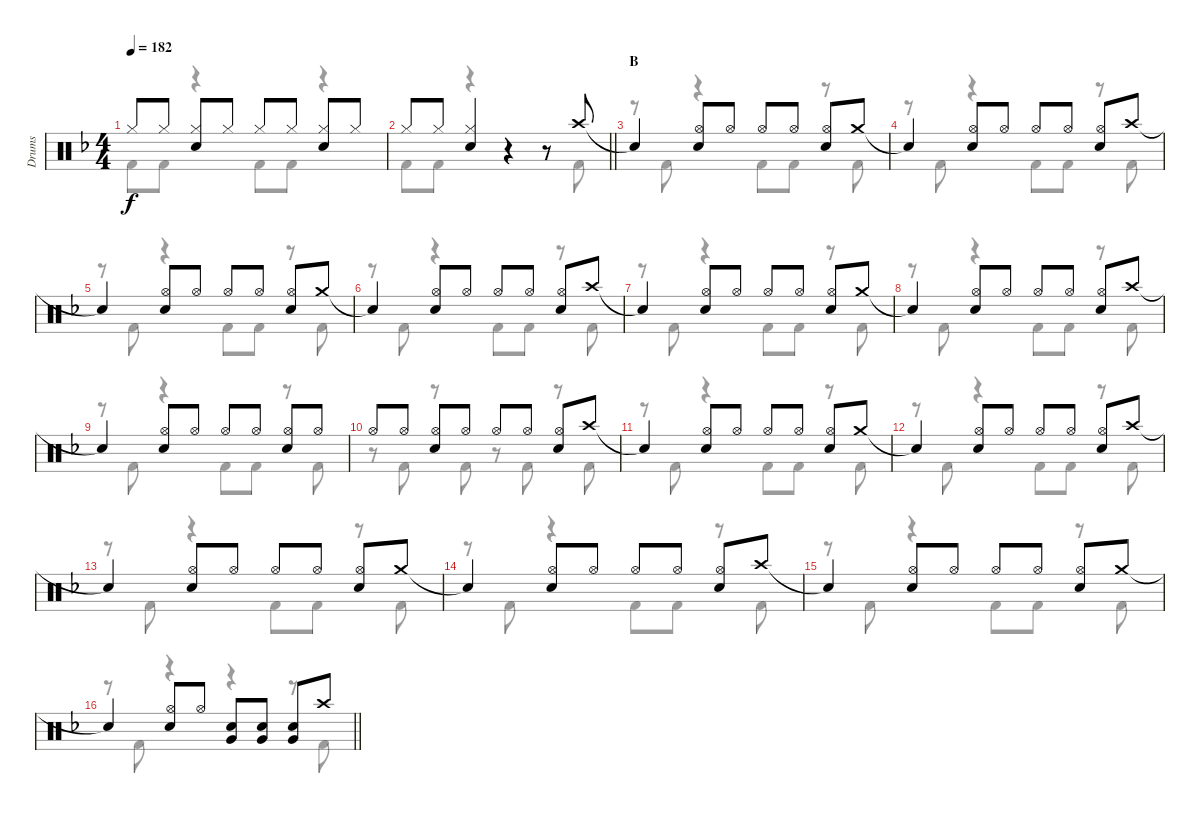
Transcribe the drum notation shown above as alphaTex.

\track ("Drums" "Drums") {instrument percussion}
\staff {score}
\articulation defaults
\voice
\ts (4 4)
\tempo 182
\clef neutral
\ks f "Hi-Hat (closed)".8{dy f} "Hi-Hat (closed)".8
("Hi-Hat (closed)" "Snare (hit) 2").8 "Hi-Hat (closed)".8 "Hi-Hat (closed)".8 "Hi-Hat (closed)".8 ("Hi-Hat (closed)" "Snare (hit) 2").8 "Hi-Hat (closed)".8 |
\barLineRight lightlight "Hi-Hat (closed)".8 "Hi-Hat (closed)".8
("Hi-Hat (closed)" "Snare (hit) 2").4 r.4 r.8 "Crash high (hit)".8 |
\section ("" "B")
"Snare (hit)"{t}.4 ("Hi-Hat (open)" "Snare (hit) 2").8 "Hi-Hat (open)".8 "Hi-Hat (open)".8 "Hi-Hat (open)".8 ("Hi-Hat (open)" "Snare (hit) 2").8 "Crash medium (hit)".8 |
"Snare (hit)"{t}.4 ("Hi-Hat (open)" "Snare (hit) 2").8 "Hi-Hat (open)".8 "Hi-Hat (open)".8 "Hi-Hat (open)".8 ("Hi-Hat (open)" "Snare (hit) 2").8 "Crash high (hit)".8 |
"Snare (hit)"{t}.4 ("Hi-Hat (open)" "Snare (hit) 2").8 "Hi-Hat (open)".8 "Hi-Hat (open)".8 "Hi-Hat (open)".8 ("Hi-Hat (open)" "Snare (hit) 2").8 "Crash medium (hit)".8 |
"Snare (hit)"{t}.4 ("Hi-Hat (open)" "Snare (hit) 2").8 "Hi-Hat (open)".8 "Hi-Hat (open)".8 "Hi-Hat (open)".8 ("Hi-Hat (open)" "Snare (hit) 2").8 "Crash high (hit)".8 |
"Snare (hit)"{t}.4 ("Hi-Hat (open)" "Snare (hit) 2").8 "Hi-Hat (open)".8 "Hi-Hat (open)".8 "Hi-Hat (open)".8 ("Hi-Hat (open)" "Snare (hit) 2").8 "Crash medium (hit)".8 |
"Snare (hit)"{t}.4 ("Hi-Hat (open)" "Snare (hit) 2").8 "Hi-Hat (open)".8 "Hi-Hat (open)".8 "Hi-Hat (open)".8 ("Hi-Hat (open)" "Snare (hit) 2").8 "Crash high (hit)".8 |
"Snare (hit)"{t}.4 ("Hi-Hat (open)" "Snare (hit) 2").8 "Hi-Hat (open)".8 "Hi-Hat (open)".8 "Hi-Hat (open)".8 ("Hi-Hat (open)" "Snare (hit) 2").8 "Hi-Hat (open)".8 |
"Hi-Hat (open)".8 "Hi-Hat (open)".8 ("Hi-Hat (open)" "Snare (hit) 2").8 "Hi-Hat (open)".8 "Hi-Hat (open)".8 "Hi-Hat (open)".8 ("Hi-Hat (open)" "Snare (hit) 2").8 "Crash high (hit)".8 |
"Snare (hit)"{t}.4 ("Hi-Hat (open)" "Snare (hit) 2").8 "Hi-Hat (open)".8 "Hi-Hat (open)".8 "Hi-Hat (open)".8 ("Hi-Hat (open)" "Snare (hit) 2").8 "Crash medium (hit)".8 |
"Snare (hit)"{t}.4 ("Hi-Hat (open)" "Snare (hit) 2").8 "Hi-Hat (open)".8 "Hi-Hat (open)".8 "Hi-Hat (open)".8 ("Hi-Hat (open)" "Snare (hit) 2").8 "Crash high (hit)".8 |
"Snare (hit)"{t}.4 ("Hi-Hat (open)" "Snare (hit) 2").8 "Hi-Hat (open)".8 "Hi-Hat (open)".8 "Hi-Hat (open)".8 ("Hi-Hat (open)" "Snare (hit) 2").8 "Crash medium (hit)".8 |
"Snare (hit)"{t}.4 ("Hi-Hat (open)" "Snare (hit) 2").8 "Hi-Hat (open)".8 "Hi-Hat (open)".8 "Hi-Hat (open)".8 ("Hi-Hat (open)" "Snare (hit) 2").8 "Crash high (hit)".8 |
"Snare (hit)"{t}.4 ("Hi-Hat (open)" "Snare (hit) 2").8 "Hi-Hat (open)".8 "Hi-Hat (open)".8 "Hi-Hat (open)".8 ("Hi-Hat (open)" "Snare (hit) 2").8 "Crash medium (hit)".8 |
\barLineRight lightlight "Snare (hit)"{t}.4
("Hi-Hat (open)" "Snare (hit) 2").8 "Hi-Hat (open)".8 ("Snare (hit) 2" "Very Low Tom (hit)").8 ("Snare (hit) 2" "Very Low Tom (hit)").8 ("Snare (hit) 2" "Very Low Tom (hit)").8 "Crash high (hit)".8
\voice
\clef neutral
\ottava regular
\simile none
\ks f "Kick (hit) 2".8{dy f} "Kick (hit) 2".8
r.4 "Kick (hit) 2".8 "Kick (hit) 2".8 r.4 |
\barLineRight lightlight "Kick (hit) 2".8 "Kick (hit) 2".8
r.4 r.4 r.8 "Kick (hit) 2".8 |
r.8 "Kick (hit) 2".8 r.4 "Kick (hit) 2".8 "Kick (hit) 2".8 r.8 "Kick (hit) 2".8 |
r.8 "Kick (hit) 2".8 r.4 "Kick (hit) 2".8 "Kick (hit) 2".8 r.8 "Kick (hit) 2".8 |
r.8 "Kick (hit) 2".8 r.4 "Kick (hit) 2".8 "Kick (hit) 2".8 r.8 "Kick (hit) 2".8 |
r.8 "Kick (hit) 2".8 r.4 "Kick (hit) 2".8 "Kick (hit) 2".8 r.8 "Kick (hit) 2".8 |
r.8 "Kick (hit) 2".8 r.4 "Kick (hit) 2".8 "Kick (hit) 2".8 r.8 "Kick (hit) 2".8 |
r.8 "Kick (hit) 2".8 r.4 "Kick (hit) 2".8 "Kick (hit) 2".8 r.8 "Kick (hit) 2".8 |
r.8 "Kick (hit) 2".8 r.4 "Kick (hit) 2".8 "Kick (hit) 2".8 r.8 "Kick (hit) 2".8 |
r.8 "Kick (hit) 2".8 r.8 "Kick (hit) 2".8 r.8 "Kick (hit) 2".8 r.8 "Kick (hit) 2".8 |
r.8 "Kick (hit) 2".8 r.4 "Kick (hit) 2".8 "Kick (hit) 2".8 r.8 "Kick (hit) 2".8 |
r.8 "Kick (hit) 2".8 r.4 "Kick (hit) 2".8 "Kick (hit) 2".8 r.8 "Kick (hit) 2".8 |
r.8 "Kick (hit) 2".8 r.4 "Kick (hit) 2".8 "Kick (hit) 2".8 r.8 "Kick (hit) 2".8 |
r.8 "Kick (hit) 2".8 r.4 "Kick (hit) 2".8 "Kick (hit) 2".8 r.8 "Kick (hit) 2".8 |
r.8 "Kick (hit) 2".8 r.4 "Kick (hit) 2".8 "Kick (hit) 2".8 r.8 "Kick (hit) 2".8 |
\barLineRight lightlight
r.8 "Kick (hit) 2".8 r.4 r.4 r.8 "Kick (hit) 2".8
